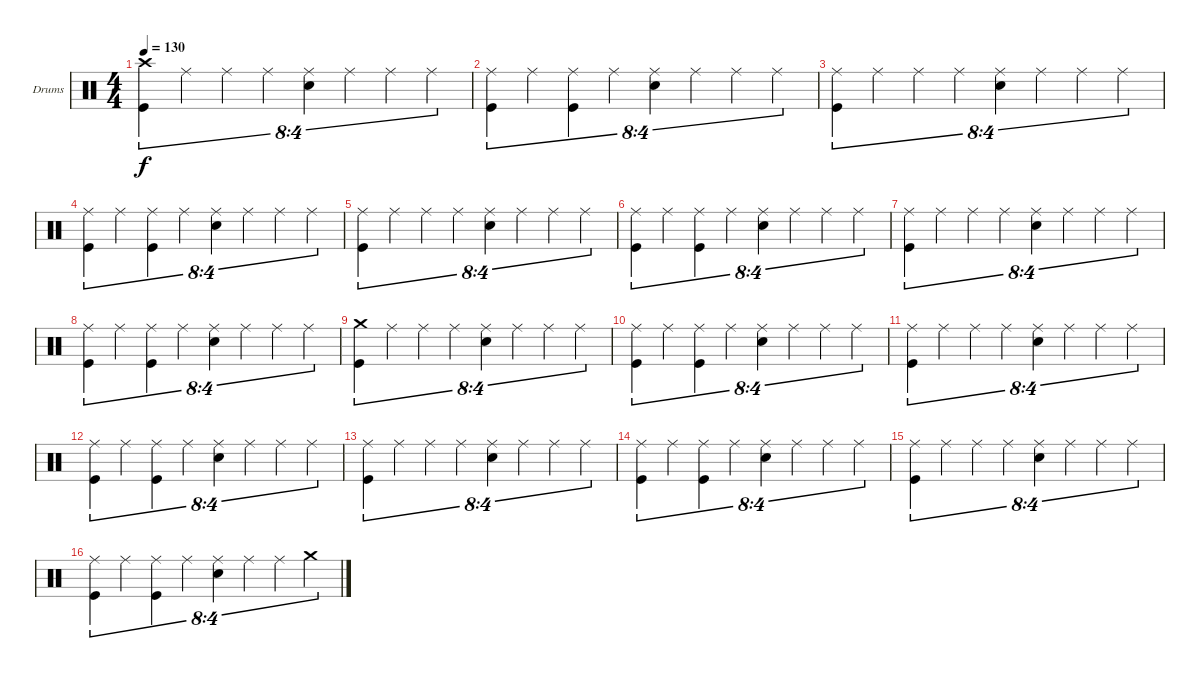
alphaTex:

\defaultSystemsLayout 4
\bracketExtendMode groupsimilarinstruments
\firstSystemTrackNameOrientation horizontal
\otherSystemsTrackNameOrientation horizontal
\track ("Drumkit" "Drums") {instrument percussion}
\staff {score}
\articulation defaults
\ts (4 4)
\tempo 130
\clef neutral
\ks c
("Crash high (hit)" "Kick (hit)").4{tu (8 4) dy f} "Ride (middle)".4{tu (8 4)} "Ride (middle)".4{tu (8 4)} "Ride (middle)".4{tu (8 4)} ("Ride (middle)" "Snare (hit) 2").4{tu (8 4)} "Ride (middle)".4{tu (8 4)} "Ride (middle)".4{tu (8 4)} "Ride (middle)".4{tu (8 4)} |
("Ride (middle)" "Kick (hit)").4{tu (8 4)} "Ride (middle)".4{tu (8 4)} ("Ride (middle)" "Kick (hit)").4{tu (8 4)} "Ride (middle)".4{tu (8 4)} ("Ride (middle)" "Snare (hit) 2").4{tu (8 4)} "Ride (middle)".4{tu (8 4)} "Ride (middle)".4{tu (8 4)} "Ride (middle)".4{tu (8 4)} |
("Ride (middle)" "Kick (hit)").4{tu (8 4)} "Ride (middle)".4{tu (8 4)} "Ride (middle)".4{tu (8 4)} "Ride (middle)".4{tu (8 4)} ("Ride (middle)" "Snare (hit) 2").4{tu (8 4)} "Ride (middle)".4{tu (8 4)} "Ride (middle)".4{tu (8 4)} "Ride (middle)".4{tu (8 4)} |
("Ride (middle)" "Kick (hit)").4{tu (8 4)} "Ride (middle)".4{tu (8 4)} ("Ride (middle)" "Kick (hit)").4{tu (8 4)} "Ride (middle)".4{tu (8 4)} ("Ride (middle)" "Snare (hit) 2").4{tu (8 4)} "Ride (middle)".4{tu (8 4)} "Ride (middle)".4{tu (8 4)} "Ride (middle)".4{tu (8 4)} |
("Ride (middle)" "Kick (hit)").4{tu (8 4)} "Ride (middle)".4{tu (8 4)} "Ride (middle)".4{tu (8 4)} "Ride (middle)".4{tu (8 4)} ("Ride (middle)" "Snare (hit) 2").4{tu (8 4)} "Ride (middle)".4{tu (8 4)} "Ride (middle)".4{tu (8 4)} "Ride (middle)".4{tu (8 4)} |
("Ride (middle)" "Kick (hit)").4{tu (8 4)} "Ride (middle)".4{tu (8 4)} ("Ride (middle)" "Kick (hit)").4{tu (8 4)} "Ride (middle)".4{tu (8 4)} ("Ride (middle)" "Snare (hit) 2").4{tu (8 4)} "Ride (middle)".4{tu (8 4)} "Ride (middle)".4{tu (8 4)} "Ride (middle)".4{tu (8 4)} |
("Ride (middle)" "Kick (hit)").4{tu (8 4)} "Ride (middle)".4{tu (8 4)} "Ride (middle)".4{tu (8 4)} "Ride (middle)".4{tu (8 4)} ("Ride (middle)" "Snare (hit) 2").4{tu (8 4)} "Ride (middle)".4{tu (8 4)} "Ride (middle)".4{tu (8 4)} "Ride (middle)".4{tu (8 4)} |
("Ride (middle)" "Kick (hit)").4{tu (8 4)} "Ride (middle)".4{tu (8 4)} ("Ride (middle)" "Kick (hit)").4{tu (8 4)} "Ride (middle)".4{tu (8 4)} ("Ride (middle)" "Snare (hit) 2").4{tu (8 4)} "Ride (middle)".4{tu (8 4)} "Ride (middle)".4{tu (8 4)} "Ride (middle)".4{tu (8 4)} |
("Kick (hit)" "Crash medium (hit)").4{tu (8 4)} "Ride (middle)".4{tu (8 4)} "Ride (middle)".4{tu (8 4)} "Ride (middle)".4{tu (8 4)} ("Snare (hit) 2" "Ride (middle)").4{tu (8 4)} "Ride (middle)".4{tu (8 4)} "Ride (middle)".4{tu (8 4)} "Ride (middle)".4{tu (8 4)} |
("Ride (middle)" "Kick (hit)").4{tu (8 4)} "Ride (middle)".4{tu (8 4)} ("Ride (middle)" "Kick (hit)").4{tu (8 4)} "Ride (middle)".4{tu (8 4)} ("Ride (middle)" "Snare (hit) 2").4{tu (8 4)} "Ride (middle)".4{tu (8 4)} "Ride (middle)".4{tu (8 4)} "Ride (middle)".4{tu (8 4)} |
("Ride (middle)" "Kick (hit)").4{tu (8 4)} "Ride (middle)".4{tu (8 4)} "Ride (middle)".4{tu (8 4)} "Ride (middle)".4{tu (8 4)} ("Ride (middle)" "Snare (hit) 2").4{tu (8 4)} "Ride (middle)".4{tu (8 4)} "Ride (middle)".4{tu (8 4)} "Ride (middle)".4{tu (8 4)} |
("Ride (middle)" "Kick (hit)").4{tu (8 4)} "Ride (middle)".4{tu (8 4)} ("Ride (middle)" "Kick (hit)").4{tu (8 4)} "Ride (middle)".4{tu (8 4)} ("Ride (middle)" "Snare (hit) 2").4{tu (8 4)} "Ride (middle)".4{tu (8 4)} "Ride (middle)".4{tu (8 4)} "Ride (middle)".4{tu (8 4)} |
("Ride (middle)" "Kick (hit)").4{tu (8 4)} "Ride (middle)".4{tu (8 4)} "Ride (middle)".4{tu (8 4)} "Ride (middle)".4{tu (8 4)} ("Ride (middle)" "Snare (hit) 2").4{tu (8 4)} "Ride (middle)".4{tu (8 4)} "Ride (middle)".4{tu (8 4)} "Ride (middle)".4{tu (8 4)} |
("Ride (middle)" "Kick (hit)").4{tu (8 4)} "Ride (middle)".4{tu (8 4)} ("Ride (middle)" "Kick (hit)").4{tu (8 4)} "Ride (middle)".4{tu (8 4)} ("Ride (middle)" "Snare (hit) 2").4{tu (8 4)} "Ride (middle)".4{tu (8 4)} "Ride (middle)".4{tu (8 4)} "Ride (middle)".4{tu (8 4)} |
("Ride (middle)" "Kick (hit)").4{tu (8 4)} "Ride (middle)".4{tu (8 4)} "Ride (middle)".4{tu (8 4)} "Ride (middle)".4{tu (8 4)} ("Ride (middle)" "Snare (hit) 2").4{tu (8 4)} "Ride (middle)".4{tu (8 4)} "Ride (middle)".4{tu (8 4)} "Ride (middle)".4{tu (8 4)} |
("Ride (middle)" "Kick (hit)").4{tu (8 4)} "Ride (middle)".4{tu (8 4)} ("Ride (middle)" "Kick (hit)").4{tu (8 4)} "Ride (middle)".4{tu (8 4)} ("Ride (middle)" "Snare (hit) 2").4{tu (8 4)} "Ride (middle)".4{tu (8 4)} "Ride (middle)".4{tu (8 4)} "Crash medium (hit)".4{tu (8 4)}
